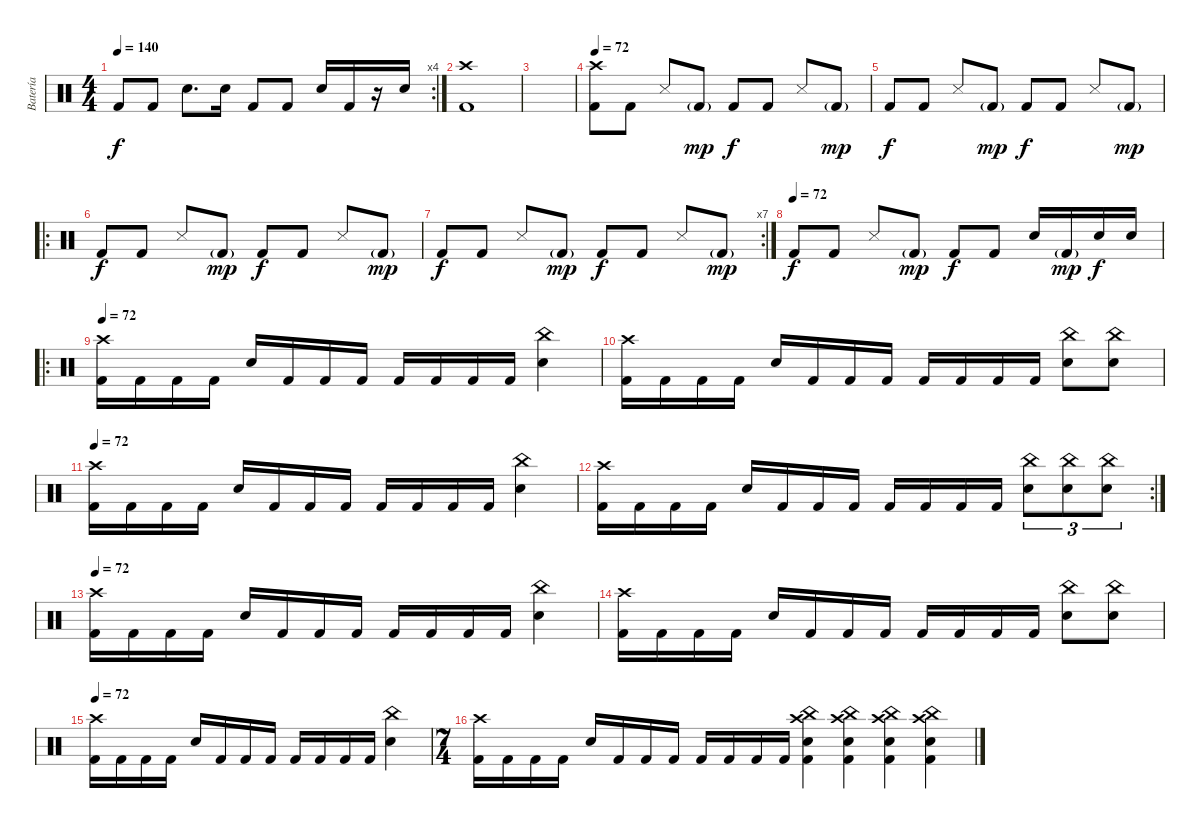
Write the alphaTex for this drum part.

\track ("Batería" "Batería") {instrument percussion}
\staff {score}
\articulation defaults
\rc 4
\ts (4 4)
\tempo 140
\clef neutral
\ks c "Kick (hit) 2".8{dy f} "Kick (hit) 2".8 "Electric Snare (hit)".8{d} "Electric Snare (hit)".16 "Kick (hit) 2".8 "Kick (hit) 2".8 "Electric Snare (hit)".16 "Kick (hit) 2".16
r.16 "Electric Snare (hit)".16 |
("Crash high (hit)" "Kick (hit) 2").1 |
|
\tempo 72
("Crash high (hit)" "Kick (hit) 2").8 "Kick (hit) 2".8 "Snare (side stick) 3".8 "Kick (hit) 2"{g}.8{dy mp} "Kick (hit) 2".8{dy f} "Kick (hit) 2".8 "Snare (side stick) 3".8 "Kick (hit) 2"{g}.8{dy mp} |
"Kick (hit) 2".8{dy f} "Kick (hit) 2".8 "Snare (side stick) 3".8 "Kick (hit) 2"{g}.8{dy mp} "Kick (hit) 2".8{dy f} "Kick (hit) 2".8 "Snare (side stick) 3".8 "Kick (hit) 2"{g}.8{dy mp} |
\ro "Kick (hit) 2".8{dy f} "Kick (hit) 2".8 "Snare (side stick) 3".8 "Kick (hit) 2"{g}.8{dy mp} "Kick (hit) 2".8{dy f} "Kick (hit) 2".8 "Snare (side stick) 3".8 "Kick (hit) 2"{g}.8{dy mp}
|
\rc 7 "Kick (hit) 2".8{dy f} "Kick (hit) 2".8 "Snare (side stick) 3".8 "Kick (hit) 2"{g}.8{dy mp} "Kick (hit) 2".8{dy f} "Kick (hit) 2".8 "Snare (side stick) 3".8 "Kick (hit) 2"{g}.8{dy mp}
|
\tempo (72)
"Kick (hit) 2".8{dy f} "Kick (hit) 2".8 "Snare (side stick) 3".8 "Kick (hit) 2"{g}.8{dy mp} "Kick (hit) 2".8{dy f} "Kick (hit) 2".8 "Electric Snare (hit)".16 "Kick (hit) 2"{g}.16{dy mp} "Electric Snare (hit)".16{dy f} "Electric Snare (hit)".16 |
\ro
\tempo 72
("Crash high (hit)" "Kick (hit) 2").16 "Kick (hit) 2".16 "Kick (hit) 2".16 "Kick (hit) 2".16 "Electric Snare (hit)".16 "Kick (hit) 2".16 "Kick (hit) 2".16 "Kick (hit) 2".16 "Kick (hit) 2".16 "Kick (hit) 2".16 "Kick (hit) 2".16 "Kick (hit) 2".16 ("China (hit)" "Electric Snare (hit)").4 |
("Crash high (hit)" "Kick (hit) 2").16 "Kick (hit) 2".16 "Kick (hit) 2".16 "Kick (hit) 2".16 "Electric Snare (hit)".16 "Kick (hit) 2".16 "Kick (hit) 2".16 "Kick (hit) 2".16 "Kick (hit) 2".16 "Kick (hit) 2".16 "Kick (hit) 2".16 "Kick (hit) 2".16 ("China (hit)" "Electric Snare (hit)").8 ("China (hit)" "Electric Snare (hit)").8 |
\tempo 72
("Crash high (hit)" "Kick (hit) 2").16 "Kick (hit) 2".16 "Kick (hit) 2".16 "Kick (hit) 2".16 "Electric Snare (hit)".16 "Kick (hit) 2".16 "Kick (hit) 2".16 "Kick (hit) 2".16 "Kick (hit) 2".16 "Kick (hit) 2".16 "Kick (hit) 2".16 "Kick (hit) 2".16 ("China (hit)" "Electric Snare (hit)").4 |
\rc 2
("Crash high (hit)" "Kick (hit) 2").16 "Kick (hit) 2".16 "Kick (hit) 2".16 "Kick (hit) 2".16 "Electric Snare (hit)".16 "Kick (hit) 2".16 "Kick (hit) 2".16 "Kick (hit) 2".16 "Kick (hit) 2".16 "Kick (hit) 2".16 "Kick (hit) 2".16 "Kick (hit) 2".16 ("China (hit)" "Electric Snare (hit)").8{tu (3 2)} ("China (hit)" "Electric Snare (hit)").8{tu (3 2)} ("China (hit)" "Electric Snare (hit)").8{tu (3 2)} |
\tempo 72
("Crash high (hit)" "Kick (hit) 2").16 "Kick (hit) 2".16 "Kick (hit) 2".16 "Kick (hit) 2".16 "Electric Snare (hit)".16 "Kick (hit) 2".16 "Kick (hit) 2".16 "Kick (hit) 2".16 "Kick (hit) 2".16 "Kick (hit) 2".16 "Kick (hit) 2".16 "Kick (hit) 2".16 ("China (hit)" "Electric Snare (hit)").4 |
("Crash high (hit)" "Kick (hit) 2").16 "Kick (hit) 2".16 "Kick (hit) 2".16 "Kick (hit) 2".16 "Electric Snare (hit)".16 "Kick (hit) 2".16 "Kick (hit) 2".16 "Kick (hit) 2".16 "Kick (hit) 2".16 "Kick (hit) 2".16 "Kick (hit) 2".16 "Kick (hit) 2".16 ("China (hit)" "Electric Snare (hit)").8 ("China (hit)" "Electric Snare (hit)").8 |
\tempo 72
("Crash high (hit)" "Kick (hit) 2").16 "Kick (hit) 2".16 "Kick (hit) 2".16 "Kick (hit) 2".16 "Electric Snare (hit)".16 "Kick (hit) 2".16 "Kick (hit) 2".16 "Kick (hit) 2".16 "Kick (hit) 2".16 "Kick (hit) 2".16 "Kick (hit) 2".16 "Kick (hit) 2".16 ("China (hit)" "Electric Snare (hit)").4 |
\ts (7 4)
("Crash high (hit)" "Kick (hit) 2").16 "Kick (hit) 2".16 "Kick (hit) 2".16 "Kick (hit) 2".16 "Electric Snare (hit)".16 "Kick (hit) 2".16 "Kick (hit) 2".16 "Kick (hit) 2".16 "Kick (hit) 2".16 "Kick (hit) 2".16 "Kick (hit) 2".16 "Kick (hit) 2".16 ("China (hit)" "Crash high (hit)" "Kick (hit) 2" "Electric Snare (hit)").4 ("China (hit)" "Crash high (hit)" "Kick (hit) 2" "Electric Snare (hit)").4 ("China (hit)" "Crash high (hit)" "Kick (hit) 2" "Electric Snare (hit)").4 ("China (hit)" "Crash high (hit)" "Kick (hit) 2" "Electric Snare (hit)").4
